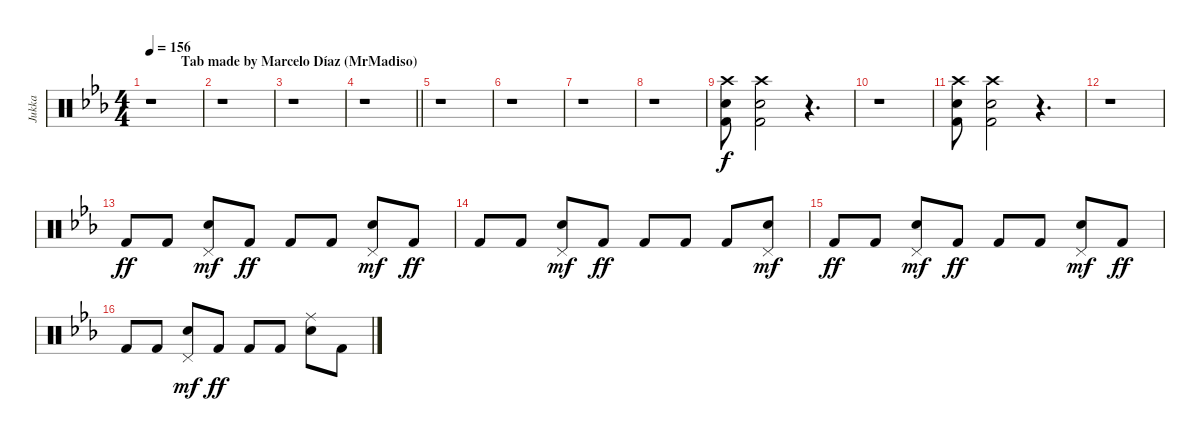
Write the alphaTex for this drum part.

\track ("Jukka" "Jukka") {instrument percussion}
\staff {score}
\articulation defaults
\ts (4 4)
\section ("" "          Tab made by Marcelo Díaz (MrMadiso)")
\tempo 156
\clef neutral
\ks cminor
r.1{dy f} |
r.1 |
r.1 |
\barLineRight lightlight
r.1 |
r.1 |
r.1 |
r.1 |
r.1 |
("Crash high (hit)" "Snare (hit) 2" "Kick (hit) 2").8 ("Crash high (hit)" "Snare (hit) 2" "Kick (hit) 2").2 r.4{d} |
r.1 |
("Crash high (hit)" "Snare (hit) 2" "Kick (hit) 2").8 ("Crash high (hit)" "Snare (hit) 2" "Kick (hit) 2").2 r.4{d} |
r.1 |
"Kick (hit) 2".8{dy ff} "Kick (hit) 2".8 ("Pedal Hi-Hat (hit)" "Snare (hit) 2").8{dy mf} "Kick (hit) 2".8{dy ff} "Kick (hit) 2".8 "Kick (hit) 2".8 ("Pedal Hi-Hat (hit)" "Snare (hit) 2").8{dy mf} "Kick (hit) 2".8{dy ff} |
"Kick (hit) 2".8 "Kick (hit) 2".8 ("Pedal Hi-Hat (hit)" "Snare (hit) 2").8{dy mf} "Kick (hit) 2".8{dy ff} "Kick (hit) 2".8 "Kick (hit) 2".8 "Kick (hit) 2".8 ("Pedal Hi-Hat (hit)" "Snare (hit) 2").8{dy mf} |
"Kick (hit) 2".8{dy ff} "Kick (hit) 2".8 ("Pedal Hi-Hat (hit)" "Snare (hit) 2").8{dy mf} "Kick (hit) 2".8{dy ff} "Kick (hit) 2".8 "Kick (hit) 2".8 ("Pedal Hi-Hat (hit)" "Snare (hit) 2").8{dy mf} "Kick (hit) 2".8{dy ff} |
"Kick (hit) 2".8 "Kick (hit) 2".8 ("Pedal Hi-Hat (hit)" "Snare (hit) 2").8{dy mf} "Kick (hit) 2".8{dy ff} "Kick (hit) 2".8 "Kick (hit) 2".8 ("Ride (middle)" "Snare (hit) 2").8 "Kick (hit) 2".8
